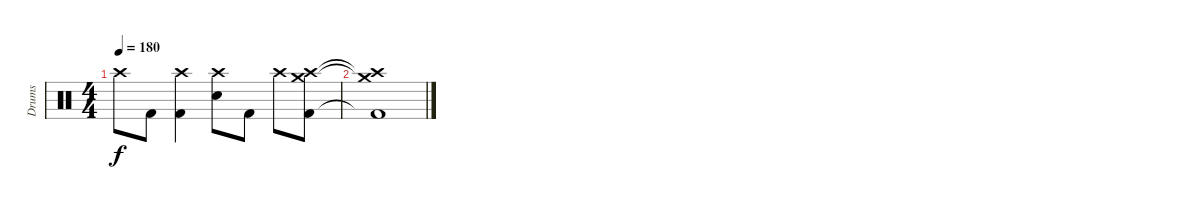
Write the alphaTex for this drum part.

\track ("Drums" "Drums") {instrument percussion}
\staff {score}
\articulation defaults
\ts (4 4)
\tempo 180
\clef neutral
\ks c "Crash high (hit)".8{dy f} "Kick (hit) 2".8
("Crash high (hit)" "Kick (hit) 2").4 ("Crash high (hit)" "Electric Snare (hit)").8 "Kick (hit) 2".8 "Crash high (hit)".8 ("Crash high (hit)" "Crash medium (hit)" "Kick (hit) 2").8 |
("Crash high (hit)"{t} "Crash medium (hit)"{t} "Kick (hit) 2"{t}).1
